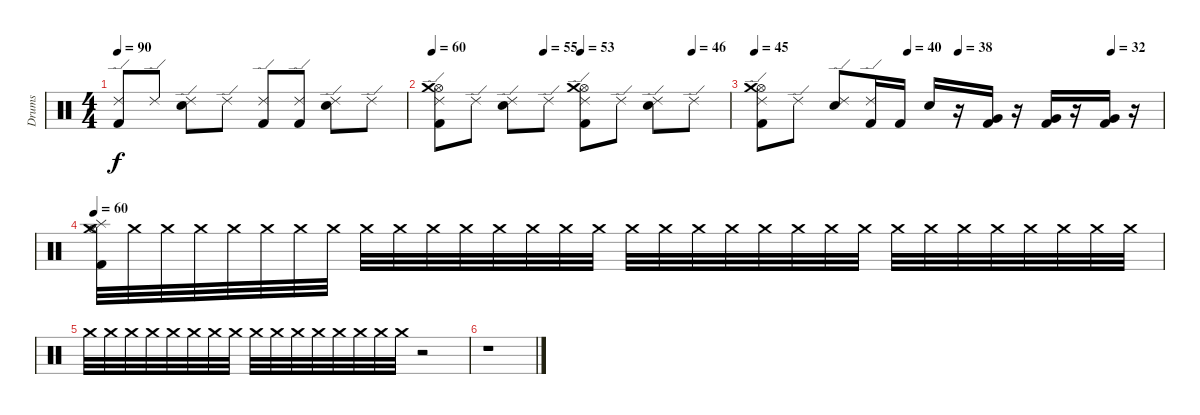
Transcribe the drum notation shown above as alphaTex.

\track ("Drums" "Drums") {instrument percussion}
\staff {score}
\articulation defaults
\ts (4 4)
\tempo 90
\clef neutral
\ks c
("Kick (hit) 2" "Ride (edge) 2").8{dy f} "Ride (edge) 2".8 ("Electric Snare (hit)" "Ride (edge) 2").8 "Ride (edge) 2".8 ("Kick (hit) 2" "Ride (edge) 2").8 ("Kick (hit) 2" "Ride (edge) 2").8 ("Electric Snare (hit)" "Ride (edge) 2").8 "Ride (edge) 2".8 |
\tempo 60
\tempo (55 0.375)
\tempo (53 0.5)
\tempo (46 0.875)
("Hi-Hat (open)" "Crash medium (hit)" "Kick (hit) 2" "Ride (edge) 2").8 "Ride (edge) 2".8 ("Electric Snare (hit)" "Ride (edge) 2").8 "Ride (edge) 2".8 ("Hi-Hat (open)" "Crash medium (hit)" "Kick (hit) 2" "Ride (edge) 2").8 "Ride (edge) 2".8 ("Electric Snare (hit)" "Ride (edge) 2").8 "Ride (edge) 2".8 |
\tempo 45
\tempo (40 0.375)
\tempo (38 0.5)
\tempo (32 0.875)
("Hi-Hat (open)" "Crash medium (hit)" "Kick (hit) 2" "Ride (edge) 2").8 "Ride (edge) 2".8 ("Electric Snare (hit)" "Ride (edge) 2").8 ("Kick (hit) 2" "Ride (edge) 2").16 "Kick (hit) 2".16 "Electric Snare (hit)".16 r.16 ("Very Low Tom (hit)" "Kick (hit) 2").16 r.16 ("Kick (hit) 2" "Very Low Tom (hit)").16 r.16 ("Kick (hit) 2" "Very Low Tom (hit)").16 r.16 |
\tempo 60
("Crash medium (hit)" "Hi-Hat (open)" "Splash (hit)" "Kick (hit) 2").32 "Crash medium (hit)".32 "Crash medium (hit)".32 "Crash medium (hit)".32 "Crash medium (hit)".32 "Crash medium (hit)".32 "Crash medium (hit)".32 "Crash medium (hit)".32 "Crash medium (hit)".32{volume 16} "Crash medium (hit)".32{volume 15} "Crash medium (hit)".32{volume 15} "Crash medium (hit)".32{volume 15} "Crash medium (hit)".32{volume 14} "Crash medium (hit)".32{volume 14} "Crash medium (hit)".32{volume 14} "Crash medium (hit)".32{volume 14} "Crash medium (hit)".32{volume 13} "Crash medium (hit)".32{volume 13} "Crash medium (hit)".32{volume 13} "Crash medium (hit)".32{volume 12} "Crash medium (hit)".32{volume 12} "Crash medium (hit)".32{volume 12} "Crash medium (hit)".32{volume 12} "Crash medium (hit)".32{volume 11} "Crash medium (hit)".32{volume 11} "Crash medium (hit)".32{volume 11} "Crash medium (hit)".32{volume 10} "Crash medium (hit)".32{volume 10} "Crash medium (hit)".32{volume 10} "Crash medium (hit)".32{volume 10} "Crash medium (hit)".32{volume 9} "Crash medium (hit)".32{volume 9} |
"Crash medium (hit)".32{volume 9} "Crash medium (hit)".32{volume 8} "Crash medium (hit)".32{volume 8} "Crash medium (hit)".32{volume 8} "Crash medium (hit)".32{volume 8} "Crash medium (hit)".32{volume 7} "Crash medium (hit)".32{volume 7} "Crash medium (hit)".32{volume 7} "Crash medium (hit)".32{volume 6} "Crash medium (hit)".32{volume 6} "Crash medium (hit)".32{volume 6} "Crash medium (hit)".32{volume 6} "Crash medium (hit)".32{volume 5} "Crash medium (hit)".32{volume 5} "Crash medium (hit)".32{volume 5} "Crash medium (hit)".32{volume 4} r.2 |
r.1
